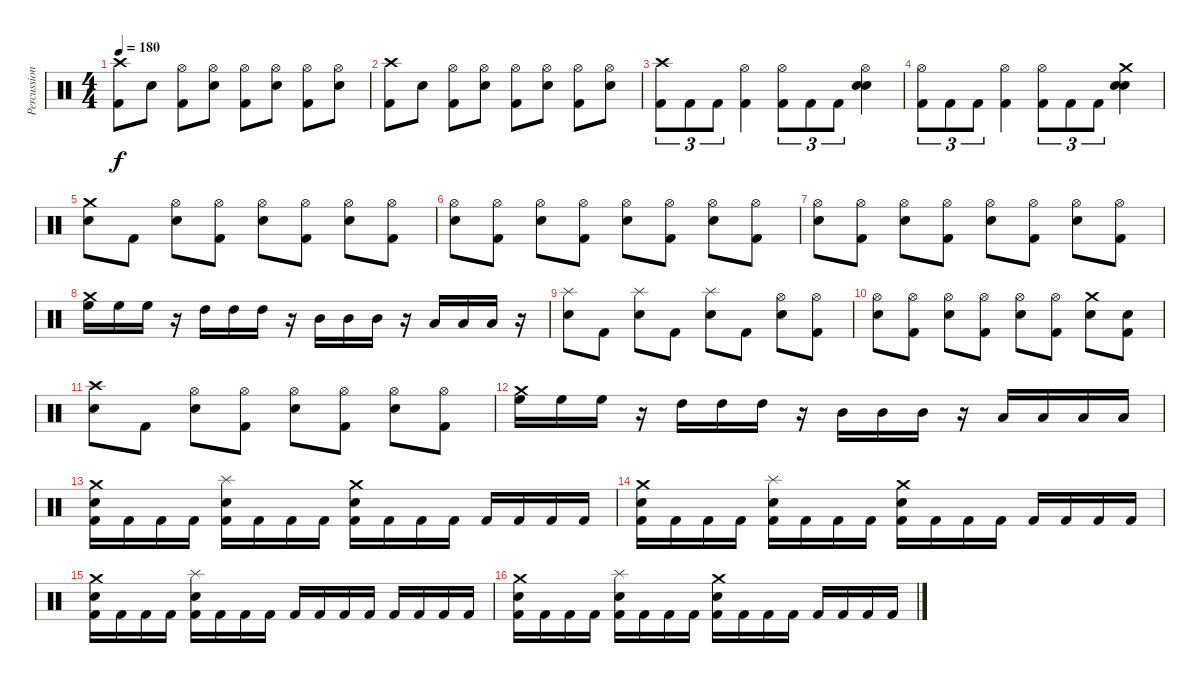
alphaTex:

\track ("Percussion" "Percussion") {instrument percussion}
\staff {score}
\articulation defaults
\ts (4 4)
\tempo 180
\clef neutral
\ks c
("Crash high (hit)" "Kick (hit) 2").8{dy f} "Snare (hit) 2".8 ("Hi-Hat (open)" "Kick (hit) 2").8 ("Hi-Hat (open)" "Snare (hit) 2").8 ("Hi-Hat (open)" "Kick (hit) 2").8 ("Hi-Hat (open)" "Snare (hit) 2").8 ("Hi-Hat (open)" "Kick (hit) 2").8 ("Hi-Hat (open)" "Snare (hit) 2").8 |
("Crash high (hit)" "Kick (hit) 2").8 "Snare (hit) 2".8 ("Hi-Hat (open)" "Kick (hit) 2").8 ("Hi-Hat (open)" "Snare (hit) 2").8 ("Hi-Hat (open)" "Kick (hit) 2").8 ("Hi-Hat (open)" "Snare (hit) 2").8 ("Hi-Hat (open)" "Kick (hit) 2").8 ("Hi-Hat (open)" "Snare (hit) 2").8 |
("Crash high (hit)" "Kick (hit) 2").8{tu (3 2)} "Kick (hit) 2".8{tu (3 2)} "Kick (hit) 2".8{tu (3 2)} ("Hi-Hat (open)" "Kick (hit) 2").4 ("Hi-Hat (open)" "Kick (hit) 2").8{tu (3 2)} "Kick (hit) 2".8{tu (3 2)} "Kick (hit) 2".8{tu (3 2)} ("Hi-Hat (open)" "Snare (hit) 2" "Snare (hit)").4 |
("Hi-Hat (open)" "Kick (hit) 2").8{tu (3 2)} "Kick (hit) 2".8{tu (3 2)} "Kick (hit) 2".8{tu (3 2)} ("Hi-Hat (open)" "Kick (hit) 2").4 ("Hi-Hat (open)" "Kick (hit) 2").8{tu (3 2)} "Kick (hit) 2".8{tu (3 2)} "Kick (hit) 2".8{tu (3 2)} ("Crash medium (hit)" "Snare (hit) 2" "Snare (hit)").4 |
("Crash medium (hit)" "Snare (hit) 2").8 "Kick (hit) 2".8 ("Hi-Hat (open)" "Snare (hit) 2").8 ("Hi-Hat (open)" "Kick (hit) 2").8 ("Hi-Hat (open)" "Snare (hit) 2").8 ("Hi-Hat (open)" "Kick (hit) 2").8 ("Hi-Hat (open)" "Snare (hit) 2").8 ("Hi-Hat (open)" "Kick (hit) 2").8 |
("Hi-Hat (open)" "Snare (hit) 2").8 ("Hi-Hat (open)" "Kick (hit) 2").8 ("Hi-Hat (open)" "Snare (hit) 2").8 ("Hi-Hat (open)" "Kick (hit) 2").8 ("Hi-Hat (open)" "Snare (hit) 2").8 ("Hi-Hat (open)" "Kick (hit) 2").8 ("Hi-Hat (open)" "Snare (hit) 2").8 ("Hi-Hat (open)" "Kick (hit) 2").8 |
("Hi-Hat (open)" "Snare (hit) 2").8 ("Hi-Hat (open)" "Kick (hit) 2").8 ("Hi-Hat (open)" "Snare (hit) 2").8 ("Hi-Hat (open)" "Kick (hit) 2").8 ("Hi-Hat (open)" "Snare (hit) 2").8 ("Hi-Hat (open)" "Kick (hit) 2").8 ("Hi-Hat (open)" "Snare (hit) 2").8 ("Hi-Hat (open)" "Kick (hit) 2").8 |
("Crash medium (hit)" "High Floor Tom (hit)").16 "High Floor Tom (hit)".16 "High Floor Tom (hit)".16 r.16 "High Tom (hit)".16 "High Tom (hit)".16 "High Tom (hit)".16 r.16 "Mid Tom (hit)".16 "Mid Tom (hit)".16 "Mid Tom (hit)".16 r.16 "Low Tom (hit)".16 "Low Tom (hit)".16 "Low Tom (hit)".16 r.16 |
("Splash (hit)" "Snare (hit) 2").8 "Kick (hit) 2".8 ("Splash (hit)" "Snare (hit) 2").8 "Kick (hit) 2".8 ("Splash (hit)" "Snare (hit) 2").8 "Kick (hit) 2".8 ("Hi-Hat (open)" "Snare (hit) 2").8 ("Hi-Hat (open)" "Kick (hit) 2").8 |
("Hi-Hat (open)" "Snare (hit) 2").8 ("Hi-Hat (open)" "Kick (hit) 2").8 ("Hi-Hat (open)" "Snare (hit) 2").8 ("Hi-Hat (open)" "Kick (hit) 2").8 ("Hi-Hat (open)" "Snare (hit) 2").8 ("Hi-Hat (open)" "Kick (hit) 2").8 ("Crash medium (hit)" "Snare (hit) 2").8 ("Snare (hit)" "Kick (hit) 2").8 |
("Crash high (hit)" "Snare (hit) 2").8 "Kick (hit) 2".8 ("Hi-Hat (open)" "Snare (hit) 2").8 ("Hi-Hat (open)" "Kick (hit) 2").8 ("Hi-Hat (open)" "Snare (hit) 2").8 ("Hi-Hat (open)" "Kick (hit) 2").8 ("Hi-Hat (open)" "Snare (hit) 2").8 ("Hi-Hat (open)" "Kick (hit) 2").8 |
("Crash medium (hit)" "High Floor Tom (hit)").16 "High Floor Tom (hit)".16 "High Floor Tom (hit)".16 r.16 "High Tom (hit)".16 "High Tom (hit)".16 "High Tom (hit)".16 r.16 "Mid Tom (hit)".16 "Mid Tom (hit)".16 "Mid Tom (hit)".16 r.16 "Low Tom (hit)".16 "Low Tom (hit)".16 "Low Tom (hit)".16 "Low Tom (hit)".16 |
("Crash medium (hit)" "Snare (hit) 2" "Kick (hit) 2").16 "Kick (hit) 2".16 "Kick (hit) 2".16 "Kick (hit) 2".16 ("Splash (hit)" "Snare (hit) 2" "Kick (hit) 2").16 "Kick (hit) 2".16 "Kick (hit) 2".16 "Kick (hit) 2".16 ("Crash medium (hit)" "Snare (hit) 2" "Kick (hit) 2").16 "Kick (hit) 2".16 "Kick (hit) 2".16 "Kick (hit) 2".16 "Kick (hit) 2".16 "Kick (hit) 2".16 "Kick (hit) 2".16 "Kick (hit) 2".16 |
("Crash medium (hit)" "Snare (hit) 2" "Kick (hit) 2").16 "Kick (hit) 2".16 "Kick (hit) 2".16 "Kick (hit) 2".16 ("Splash (hit)" "Snare (hit) 2" "Kick (hit) 2").16 "Kick (hit) 2".16 "Kick (hit) 2".16 "Kick (hit) 2".16 ("Crash medium (hit)" "Snare (hit) 2" "Kick (hit) 2").16 "Kick (hit) 2".16 "Kick (hit) 2".16 "Kick (hit) 2".16 "Kick (hit) 2".16 "Kick (hit) 2".16 "Kick (hit) 2".16 "Kick (hit) 2".16 |
("Crash medium (hit)" "Snare (hit) 2" "Kick (hit) 2").16 "Kick (hit) 2".16 "Kick (hit) 2".16 "Kick (hit) 2".16 ("Splash (hit)" "Snare (hit) 2" "Kick (hit) 2").16 "Kick (hit) 2".16 "Kick (hit) 2".16 "Kick (hit) 2".16 "Kick (hit) 2".16 "Kick (hit) 2".16 "Kick (hit) 2".16 "Kick (hit) 2".16 "Kick (hit) 2".16 "Kick (hit) 2".16 "Kick (hit) 2".16 "Kick (hit) 2".16 |
("Crash medium (hit)" "Snare (hit) 2" "Kick (hit) 2").16 "Kick (hit) 2".16 "Kick (hit) 2".16 "Kick (hit) 2".16 ("Splash (hit)" "Snare (hit) 2" "Kick (hit) 2").16 "Kick (hit) 2".16 "Kick (hit) 2".16 "Kick (hit) 2".16 ("Crash medium (hit)" "Snare (hit) 2" "Kick (hit) 2").16 "Kick (hit) 2".16 "Kick (hit) 2".16 "Kick (hit) 2".16 "Kick (hit) 2".16 "Kick (hit) 2".16 "Kick (hit) 2".16 "Kick (hit) 2".16
